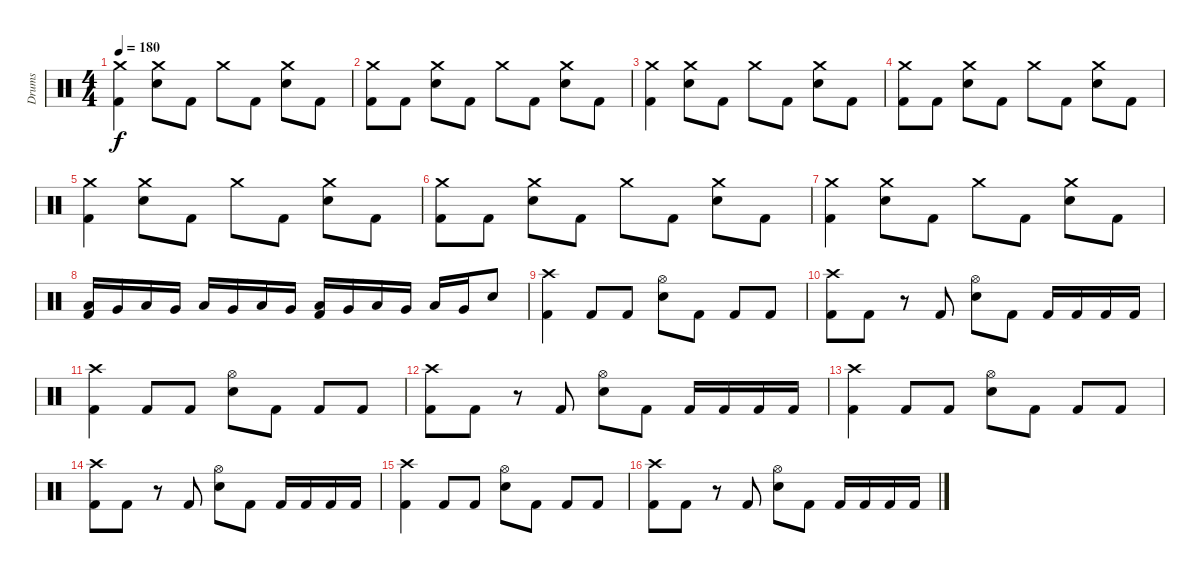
\track ("Drums" "Drums") {instrument percussion}
\staff {score}
\articulation defaults
\ts (4 4)
\tempo 180
\clef neutral
\ks c
("Crash medium (hit)" "Kick (hit) 2").4{dy f} ("Crash medium (hit)" "Snare (hit) 2").8 "Kick (hit) 2".8 "Crash medium (hit)".8 "Kick (hit) 2".8 ("Crash medium (hit)" "Snare (hit) 2").8 "Kick (hit) 2".8 |
("Crash medium (hit)" "Kick (hit) 2").8 "Kick (hit) 2".8 ("Crash medium (hit)" "Snare (hit) 2").8 "Kick (hit) 2".8 "Crash medium (hit)".8 "Kick (hit) 2".8 ("Crash medium (hit)" "Snare (hit) 2").8 "Kick (hit) 2".8 |
("Crash medium (hit)" "Kick (hit) 2").4 ("Crash medium (hit)" "Snare (hit) 2").8 "Kick (hit) 2".8 "Crash medium (hit)".8 "Kick (hit) 2".8 ("Crash medium (hit)" "Snare (hit) 2").8 "Kick (hit) 2".8 |
("Crash medium (hit)" "Kick (hit) 2").8 "Kick (hit) 2".8 ("Crash medium (hit)" "Snare (hit) 2").8 "Kick (hit) 2".8 "Crash medium (hit)".8 "Kick (hit) 2".8 ("Crash medium (hit)" "Snare (hit) 2").8 "Kick (hit) 2".8 |
("Crash medium (hit)" "Kick (hit) 2").4 ("Crash medium (hit)" "Snare (hit) 2").8 "Kick (hit) 2".8 "Crash medium (hit)".8 "Kick (hit) 2".8 ("Crash medium (hit)" "Snare (hit) 2").8 "Kick (hit) 2".8 |
("Crash medium (hit)" "Kick (hit) 2").8 "Kick (hit) 2".8 ("Crash medium (hit)" "Snare (hit) 2").8 "Kick (hit) 2".8 "Crash medium (hit)".8 "Kick (hit) 2".8 ("Crash medium (hit)" "Snare (hit) 2").8 "Kick (hit) 2".8 |
("Crash medium (hit)" "Kick (hit) 2").4 ("Crash medium (hit)" "Snare (hit) 2").8 "Kick (hit) 2".8 "Crash medium (hit)".8 "Kick (hit) 2".8 ("Crash medium (hit)" "Snare (hit) 2").8 "Kick (hit) 2".8 |
("Low Tom (hit)" "Kick (hit) 2").16 "Very Low Tom (hit)".16 "Low Tom (hit)".16 "Very Low Tom (hit)".16 "Low Tom (hit)".16 "Very Low Tom (hit)".16 "Low Tom (hit)".16 "Very Low Tom (hit)".16 ("Low Tom (hit)" "Kick (hit) 2").16 "Very Low Tom (hit)".16 "Low Tom (hit)".16 "Very Low Tom (hit)".16 "Low Tom (hit)".16 "Very Low Tom (hit)".16 "Snare (hit) 2".8 |
("Crash high (hit)" "Kick (hit) 2").4 "Kick (hit) 2".8 "Kick (hit) 2".8 ("Hi-Hat (open)" "Snare (hit) 2").8 "Kick (hit) 2".8 "Kick (hit) 2".8 "Kick (hit) 2".8 |
("Crash high (hit)" "Kick (hit) 2").8 "Kick (hit) 2".8 r.8 "Kick (hit) 2".8 ("Hi-Hat (open)" "Snare (hit) 2").8 "Kick (hit) 2".8 "Kick (hit) 2".16 "Kick (hit) 2".16 "Kick (hit) 2".16 "Kick (hit) 2".16 |
("Crash high (hit)" "Kick (hit) 2").4 "Kick (hit) 2".8 "Kick (hit) 2".8 ("Hi-Hat (open)" "Snare (hit) 2").8 "Kick (hit) 2".8 "Kick (hit) 2".8 "Kick (hit) 2".8 |
("Crash high (hit)" "Kick (hit) 2").8 "Kick (hit) 2".8 r.8 "Kick (hit) 2".8 ("Hi-Hat (open)" "Snare (hit) 2").8 "Kick (hit) 2".8 "Kick (hit) 2".16 "Kick (hit) 2".16 "Kick (hit) 2".16 "Kick (hit) 2".16 |
("Crash high (hit)" "Kick (hit) 2").4 "Kick (hit) 2".8 "Kick (hit) 2".8 ("Hi-Hat (open)" "Snare (hit) 2").8 "Kick (hit) 2".8 "Kick (hit) 2".8 "Kick (hit) 2".8 |
("Crash high (hit)" "Kick (hit) 2").8 "Kick (hit) 2".8 r.8 "Kick (hit) 2".8 ("Hi-Hat (open)" "Snare (hit) 2").8 "Kick (hit) 2".8 "Kick (hit) 2".16 "Kick (hit) 2".16 "Kick (hit) 2".16 "Kick (hit) 2".16 |
("Crash high (hit)" "Kick (hit) 2").4 "Kick (hit) 2".8 "Kick (hit) 2".8 ("Hi-Hat (open)" "Snare (hit) 2").8 "Kick (hit) 2".8 "Kick (hit) 2".8 "Kick (hit) 2".8 |
("Crash high (hit)" "Kick (hit) 2").8 "Kick (hit) 2".8 r.8 "Kick (hit) 2".8 ("Hi-Hat (open)" "Snare (hit) 2").8 "Kick (hit) 2".8 "Kick (hit) 2".16 "Kick (hit) 2".16 "Kick (hit) 2".16 "Kick (hit) 2".16
